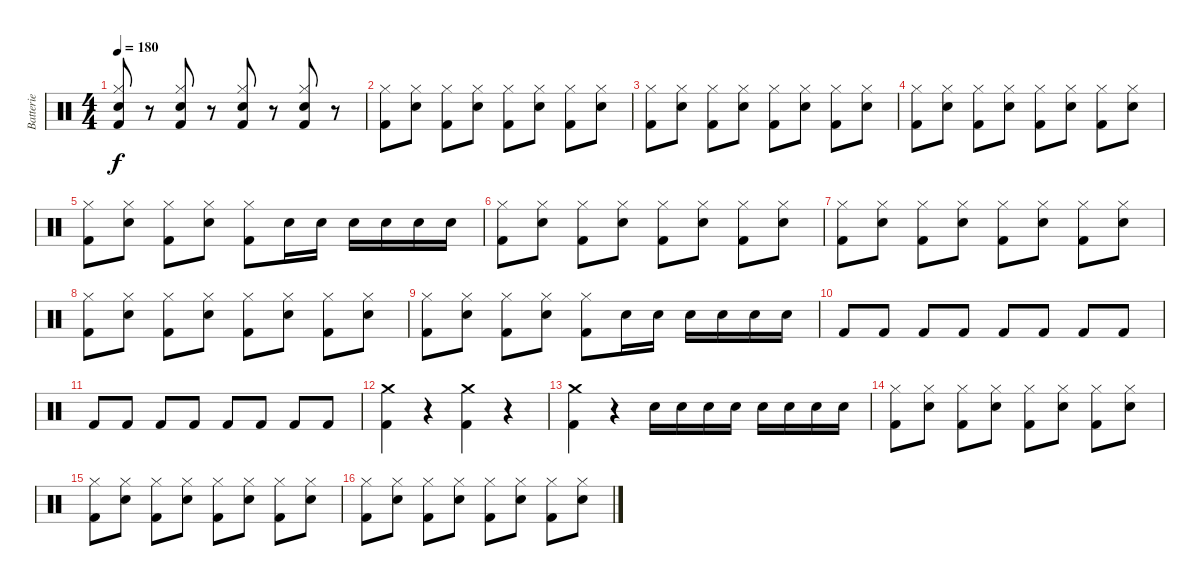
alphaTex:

\track ("Batterie" "Batterie") {instrument percussion}
\staff {score}
\articulation defaults
\ts (4 4)
\tempo 180
\clef neutral
\ks c
("Electric Snare (hit)" "Hi-Hat (closed)" "Kick (hit) 2").8{dy f} r.8 ("Electric Snare (hit)" "Hi-Hat (closed)" "Kick (hit) 2").8 r.8 ("Electric Snare (hit)" "Hi-Hat (closed)" "Kick (hit) 2").8 r.8 ("Electric Snare (hit)" "Hi-Hat (closed)" "Kick (hit) 2").8 r.8 |
("Kick (hit) 2" "Hi-Hat (closed)").8 ("Electric Snare (hit)" "Hi-Hat (closed)").8 ("Kick (hit) 2" "Hi-Hat (closed)").8 ("Electric Snare (hit)" "Hi-Hat (closed)").8 ("Kick (hit) 2" "Hi-Hat (closed)").8 ("Electric Snare (hit)" "Hi-Hat (closed)").8 ("Kick (hit) 2" "Hi-Hat (closed)").8 ("Electric Snare (hit)" "Hi-Hat (closed)").8 |
("Kick (hit) 2" "Hi-Hat (closed)").8 ("Electric Snare (hit)" "Hi-Hat (closed)").8 ("Kick (hit) 2" "Hi-Hat (closed)").8 ("Electric Snare (hit)" "Hi-Hat (closed)").8 ("Kick (hit) 2" "Hi-Hat (closed)").8 ("Electric Snare (hit)" "Hi-Hat (closed)").8 ("Kick (hit) 2" "Hi-Hat (closed)").8 ("Electric Snare (hit)" "Hi-Hat (closed)").8 |
("Kick (hit) 2" "Hi-Hat (closed)").8 ("Electric Snare (hit)" "Hi-Hat (closed)").8 ("Kick (hit) 2" "Hi-Hat (closed)").8 ("Electric Snare (hit)" "Hi-Hat (closed)").8 ("Kick (hit) 2" "Hi-Hat (closed)").8 ("Electric Snare (hit)" "Hi-Hat (closed)").8 ("Kick (hit) 2" "Hi-Hat (closed)").8 ("Electric Snare (hit)" "Hi-Hat (closed)").8 |
("Kick (hit) 2" "Hi-Hat (closed)").8 ("Electric Snare (hit)" "Hi-Hat (closed)").8 ("Kick (hit) 2" "Hi-Hat (closed)").8 ("Electric Snare (hit)" "Hi-Hat (closed)").8 ("Kick (hit) 2" "Hi-Hat (closed)").8 "Electric Snare (hit)".16 "Electric Snare (hit)".16 "Electric Snare (hit)".16 "Electric Snare (hit)".16 "Electric Snare (hit)".16 "Electric Snare (hit)".16 |
("Kick (hit) 2" "Hi-Hat (closed)").8 ("Electric Snare (hit)" "Hi-Hat (closed)").8 ("Kick (hit) 2" "Hi-Hat (closed)").8 ("Electric Snare (hit)" "Hi-Hat (closed)").8 ("Kick (hit) 2" "Hi-Hat (closed)").8 ("Electric Snare (hit)" "Hi-Hat (closed)").8 ("Kick (hit) 2" "Hi-Hat (closed)").8 ("Electric Snare (hit)" "Hi-Hat (closed)").8 |
("Kick (hit) 2" "Hi-Hat (closed)").8 ("Electric Snare (hit)" "Hi-Hat (closed)").8 ("Kick (hit) 2" "Hi-Hat (closed)").8 ("Electric Snare (hit)" "Hi-Hat (closed)").8 ("Kick (hit) 2" "Hi-Hat (closed)").8 ("Electric Snare (hit)" "Hi-Hat (closed)").8 ("Kick (hit) 2" "Hi-Hat (closed)").8 ("Electric Snare (hit)" "Hi-Hat (closed)").8 |
("Kick (hit) 2" "Hi-Hat (closed)").8 ("Electric Snare (hit)" "Hi-Hat (closed)").8 ("Kick (hit) 2" "Hi-Hat (closed)").8 ("Electric Snare (hit)" "Hi-Hat (closed)").8 ("Kick (hit) 2" "Hi-Hat (closed)").8 ("Electric Snare (hit)" "Hi-Hat (closed)").8 ("Kick (hit) 2" "Hi-Hat (closed)").8 ("Electric Snare (hit)" "Hi-Hat (closed)").8 |
("Kick (hit) 2" "Hi-Hat (closed)").8 ("Electric Snare (hit)" "Hi-Hat (closed)").8 ("Kick (hit) 2" "Hi-Hat (closed)").8 ("Electric Snare (hit)" "Hi-Hat (closed)").8 ("Kick (hit) 2" "Hi-Hat (closed)").8 "Electric Snare (hit)".16 "Electric Snare (hit)".16 "Electric Snare (hit)".16 "Electric Snare (hit)".16 "Electric Snare (hit)".16 "Electric Snare (hit)".16 |
"Kick (hit) 2".8 "Kick (hit) 2".8 "Kick (hit) 2".8 "Kick (hit) 2".8 "Kick (hit) 2".8 "Kick (hit) 2".8 "Kick (hit) 2".8 "Kick (hit) 2".8 |
"Kick (hit) 2".8 "Kick (hit) 2".8 "Kick (hit) 2".8 "Kick (hit) 2".8 "Kick (hit) 2".8 "Kick (hit) 2".8 "Kick (hit) 2".8 "Kick (hit) 2".8 |
("Crash medium (hit)" "Kick (hit) 2").4 r.4 ("Crash medium (hit)" "Kick (hit) 2").4 r.4 |
("Crash medium (hit)" "Kick (hit) 2").4 r.4 "Electric Snare (hit)".16 "Electric Snare (hit)".16 "Electric Snare (hit)".16 "Electric Snare (hit)".16 "Electric Snare (hit)".16 "Electric Snare (hit)".16 "Electric Snare (hit)".16 "Electric Snare (hit)".16 |
("Kick (hit) 2" "Hi-Hat (closed)").8 ("Electric Snare (hit)" "Hi-Hat (closed)").8 ("Kick (hit) 2" "Hi-Hat (closed)").8 ("Electric Snare (hit)" "Hi-Hat (closed)").8 ("Kick (hit) 2" "Hi-Hat (closed)").8 ("Electric Snare (hit)" "Hi-Hat (closed)").8 ("Kick (hit) 2" "Hi-Hat (closed)").8 ("Electric Snare (hit)" "Hi-Hat (closed)").8 |
("Kick (hit) 2" "Hi-Hat (closed)").8 ("Electric Snare (hit)" "Hi-Hat (closed)").8 ("Kick (hit) 2" "Hi-Hat (closed)").8 ("Electric Snare (hit)" "Hi-Hat (closed)").8 ("Kick (hit) 2" "Hi-Hat (closed)").8 ("Electric Snare (hit)" "Hi-Hat (closed)").8 ("Kick (hit) 2" "Hi-Hat (closed)").8 ("Electric Snare (hit)" "Hi-Hat (closed)").8 |
("Kick (hit) 2" "Hi-Hat (closed)").8 ("Electric Snare (hit)" "Hi-Hat (closed)").8 ("Kick (hit) 2" "Hi-Hat (closed)").8 ("Electric Snare (hit)" "Hi-Hat (closed)").8 ("Kick (hit) 2" "Hi-Hat (closed)").8 ("Electric Snare (hit)" "Hi-Hat (closed)").8 ("Kick (hit) 2" "Hi-Hat (closed)").8 ("Electric Snare (hit)" "Hi-Hat (closed)").8
